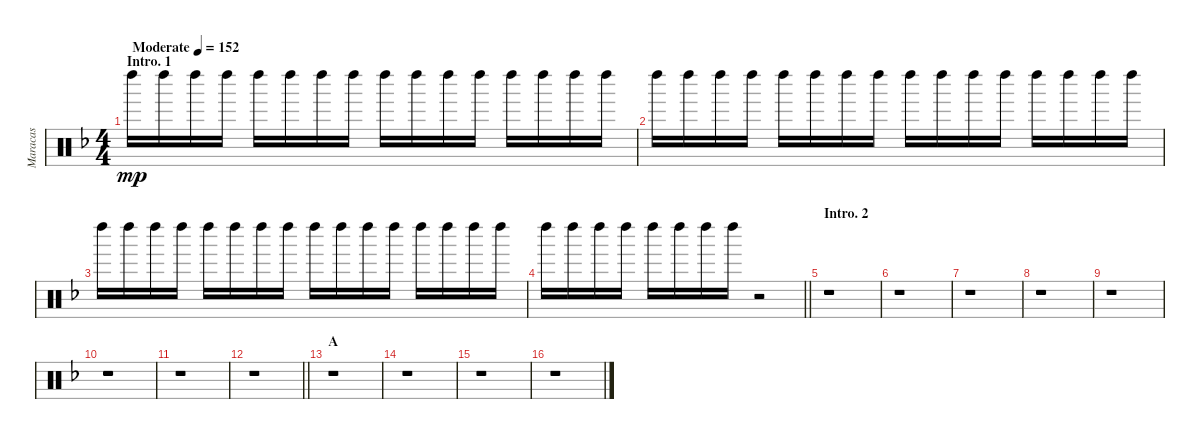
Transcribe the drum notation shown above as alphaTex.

\track ("Maracas" "Maracas") {instrument percussion}
\staff {score}
\articulation defaults
\ts (4 4)
\section ("" "Intro. 1")
\tempo (152 "Moderate")
\clef neutral
\ks f "Left Maraca (hit)".16{dy mp} "Left Maraca (hit)".16 "Left Maraca (hit)".16 "Left Maraca (hit)".16 "Left Maraca (hit)".16 "Left Maraca (hit)".16 "Left Maraca (hit)".16 "Left Maraca (hit)".16 "Left Maraca (hit)".16 "Left Maraca (hit)".16 "Left Maraca (hit)".16 "Left Maraca (hit)".16 "Left Maraca (hit)".16 "Left Maraca (hit)".16 "Left Maraca (hit)".16 "Left Maraca (hit)".16
|
"Left Maraca (hit)".16 "Left Maraca (hit)".16 "Left Maraca (hit)".16 "Left Maraca (hit)".16 "Left Maraca (hit)".16 "Left Maraca (hit)".16 "Left Maraca (hit)".16 "Left Maraca (hit)".16 "Left Maraca (hit)".16 "Left Maraca (hit)".16 "Left Maraca (hit)".16 "Left Maraca (hit)".16 "Left Maraca (hit)".16 "Left Maraca (hit)".16 "Left Maraca (hit)".16 "Left Maraca (hit)".16 |
"Left Maraca (hit)".16 "Left Maraca (hit)".16 "Left Maraca (hit)".16 "Left Maraca (hit)".16 "Left Maraca (hit)".16 "Left Maraca (hit)".16 "Left Maraca (hit)".16 "Left Maraca (hit)".16 "Left Maraca (hit)".16 "Left Maraca (hit)".16 "Left Maraca (hit)".16 "Left Maraca (hit)".16 "Left Maraca (hit)".16 "Left Maraca (hit)".16 "Left Maraca (hit)".16 "Left Maraca (hit)".16 |
\barLineRight lightlight "Left Maraca (hit)".16 "Left Maraca (hit)".16 "Left Maraca (hit)".16 "Left Maraca (hit)".16 "Left Maraca (hit)".16 "Left Maraca (hit)".16 "Left Maraca (hit)".16 "Left Maraca (hit)".16
r.2 |
\section ("" "Intro. 2")
r.1 |
r.1 |
r.1 |
r.1 |
r.1 |
r.1 |
r.1 |
\barLineRight lightlight
r.1 |
\section ("" "A")
r.1 |
r.1 |
r.1 |
r.1
